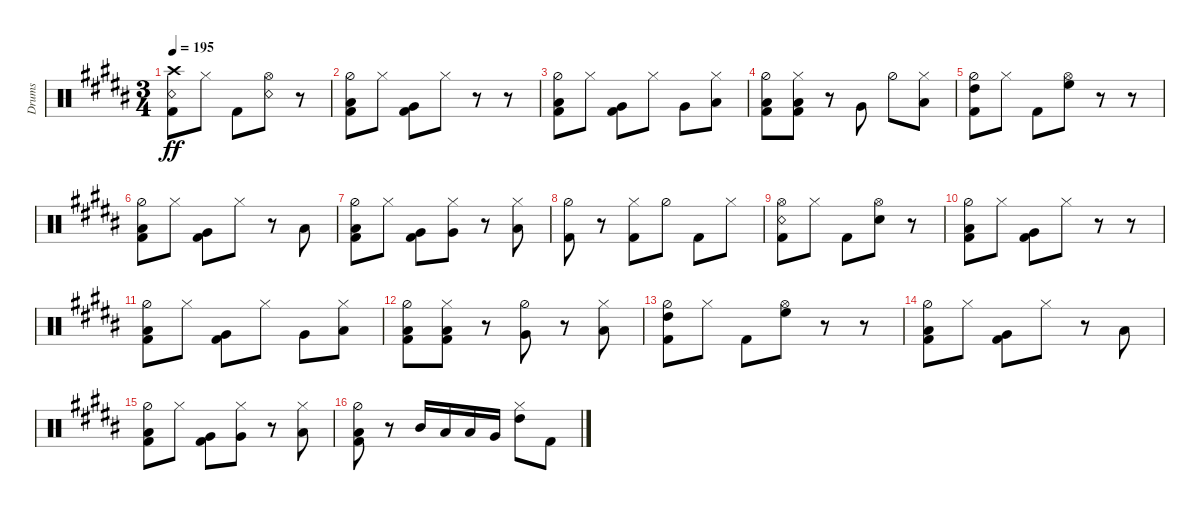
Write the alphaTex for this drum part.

\bracketExtendMode groupsimilarinstruments
\otherSystemsTrackNameOrientation horizontal
\track ("Drumkit" "Drums") {instrument percussion}
\staff {score}
\articulation defaults
\ts (3 4)
\tempo 195
\clef neutral
\ks b
("Kick (hit) 2"{acc bb} "Snare (rim shot)"{acc bb} "Crash high (hit)"{acc bb}).8{dy ff beam Down} "Hi-Hat (closed)"{acc bb}.8{beam Down} "Kick (hit) 2"{acc bb}.8{beam Down} ("Snare (rim shot)"{acc bb} "Hi-Hat (open)"{acc bb}).8{beam Down} r.8{beam Down} |
("Kick (hit) 2"{acc bb} "Hi-Hat (half)"{acc bb} "Low Tom (hit)"{acc bb}).8{beam Down} "Hi-Hat (closed)"{acc bb}.8{beam Down} ("Kick (hit) 2"{acc bb} "Very Low Tom (hit)"{acc bb}).8{beam Down} "Hi-Hat (closed)"{acc bb}.8{beam Down} r.8{beam Down} r.8{beam Down} |
("Kick (hit) 2"{acc bb} "Hi-Hat (half)"{acc bb} "Low Tom (hit)"{acc bb}).8{beam Down} "Hi-Hat (closed)"{acc bb}.8{beam Down} ("Kick (hit) 2"{acc bb} "Very Low Tom (hit)"{acc bb}).8{beam Down} "Hi-Hat (closed)"{acc bb}.8{beam Down} "Very Low Tom (hit)"{acc bb}.8{beam Down} ("Hi-Hat (closed)"{acc bb} "Low Tom (hit)"{acc bb}).8{beam Down} |
("Kick (hit) 2"{acc bb} "Hi-Hat (half)"{acc bb} "Low Tom (hit)"{acc bb}).8{beam Down} ("Hi-Hat (closed)"{acc bb} "Low Tom (hit)"{acc bb} "Kick (hit) 2"{acc bb}).8{beam Down} r.8{beam Down} "Very Low Tom (hit)"{acc bb}.8{beam Up} "Hi-Hat (half)"{acc bb}.8{beam Down} ("Hi-Hat (closed)"{acc bb} "Low Tom (hit)"{acc bb}).8{beam Down} |
("Kick (hit) 2"{acc bb} "High Tom (hit)"{acc bb} "Hi-Hat (half)"{acc bb}).8{beam Down} "Hi-Hat (closed)"{acc bb}.8{beam Down} "Kick (hit) 2"{acc bb}.8{beam Down} ("Hi-Hat (open)"{acc bb} "High Floor Tom (hit)"{acc bb}).8{beam Down} r.8{beam Down} r.8{beam Down} |
("Kick (hit) 2"{acc bb} "Hi-Hat (half)"{acc bb} "Low Tom (hit)"{acc bb}).8{beam Down} "Hi-Hat (closed)"{acc bb}.8{beam Down} ("Kick (hit) 2"{acc bb} "Very Low Tom (hit)"{acc bb}).8{beam Down} "Hi-Hat (closed)"{acc bb}.8{beam Down} r.8{beam Down} "Low Tom (hit)"{acc bb}.8{beam Up} |
("Kick (hit) 2"{acc bb} "Hi-Hat (half)"{acc bb} "Low Tom (hit)"{acc bb}).8{beam Down} "Hi-Hat (closed)"{acc bb}.8{beam Down} ("Kick (hit) 2"{acc bb} "Very Low Tom (hit)"{acc bb}).8{beam Down} ("Hi-Hat (closed)"{acc bb} "Very Low Tom (hit)"{acc bb}).8{beam Down} r.8{beam Down} ("Hi-Hat (closed)"{acc bb} "Low Tom (hit)"{acc bb}).8{beam Down} |
("Kick (hit) 2"{acc bb} "Hi-Hat (half)"{acc bb}).8{beam Down} r.8{beam Down} ("Kick (hit) 2"{acc bb} "Hi-Hat (closed)"{acc bb}).8{beam Down} "Hi-Hat (half)"{acc bb}.8{beam Down} "Kick (hit) 2"{acc bb}.8{beam Down} "Hi-Hat (closed)"{acc bb}.8{beam Down} |
("Kick (hit) 2"{acc bb} "Snare (rim shot)"{acc bb} "Hi-Hat (open)"{acc bb}).8{beam Down} "Hi-Hat (closed)"{acc bb}.8{beam Down} "Kick (hit) 2"{acc bb}.8{beam Down} ("Hi-Hat (open)"{acc bb} "Snare (hit) 2"{acc bb}).8{beam Down} r.8{beam Down} |
("Kick (hit) 2"{acc bb} "Hi-Hat (half)"{acc bb} "Low Tom (hit)"{acc bb}).8{beam Down} "Hi-Hat (closed)"{acc bb}.8{beam Down} ("Kick (hit) 2"{acc bb} "Very Low Tom (hit)"{acc bb}).8{beam Down} "Hi-Hat (closed)"{acc bb}.8{beam Down} r.8{beam Down} r.8{beam Down} |
("Kick (hit) 2"{acc bb} "Hi-Hat (half)"{acc bb} "Low Tom (hit)"{acc bb}).8{beam Down} "Hi-Hat (closed)"{acc bb}.8{beam Down} ("Kick (hit) 2"{acc bb} "Very Low Tom (hit)"{acc bb}).8{beam Down} "Hi-Hat (closed)"{acc bb}.8{beam Down} "Very Low Tom (hit)"{acc bb}.8{beam Down} ("Hi-Hat (closed)"{acc bb} "Low Tom (hit)"{acc bb}).8{beam Down} |
("Kick (hit) 2"{acc bb} "Hi-Hat (half)"{acc bb} "Low Tom (hit)"{acc bb}).8{beam Down} ("Hi-Hat (closed)"{acc bb} "Low Tom (hit)"{acc bb} "Kick (hit) 2"{acc bb}).8{beam Down} r.8{beam Down} ("Hi-Hat (half)"{acc bb} "Very Low Tom (hit)"{acc bb}).8{beam Down} r.8{beam Down} ("Hi-Hat (closed)"{acc bb} "Low Tom (hit)"{acc bb}).8{beam Down} |
("Kick (hit) 2"{acc bb} "High Tom (hit)"{acc bb} "Hi-Hat (half)"{acc bb}).8{beam Down} "Hi-Hat (closed)"{acc bb}.8{beam Down} "Kick (hit) 2"{acc bb}.8{beam Down} ("Hi-Hat (open)"{acc bb} "High Floor Tom (hit)"{acc bb}).8{beam Down} r.8{beam Down} r.8{beam Down} |
("Kick (hit) 2"{acc bb} "Hi-Hat (half)"{acc bb} "Low Tom (hit)"{acc bb}).8{beam Down} "Hi-Hat (closed)"{acc bb}.8{beam Down} ("Kick (hit) 2"{acc bb} "Very Low Tom (hit)"{acc bb}).8{beam Down} "Hi-Hat (closed)"{acc bb}.8{beam Down} r.8{beam Down} "Low Tom (hit)"{acc bb}.8{beam Up} |
("Kick (hit) 2"{acc bb} "Hi-Hat (half)"{acc bb} "Low Tom (hit)"{acc bb}).8{beam Down} "Hi-Hat (closed)"{acc bb}.8{beam Down} ("Kick (hit) 2"{acc bb} "Very Low Tom (hit)"{acc bb}).8{beam Down} ("Hi-Hat (closed)"{acc bb} "Very Low Tom (hit)"{acc bb}).8{beam Down} r.8{beam Down} ("Hi-Hat (closed)"{acc bb} "Low Tom (hit)"{acc bb}).8{beam Down} |
("Kick (hit) 2"{acc bb} "Hi-Hat (half)"{acc bb} "Low Tom (hit)"{acc bb}).8{beam Down} r.8{beam Down} "Mid Tom (hit)"{acc bb}.16{beam Up} "Low Tom (hit)"{acc bb}.16{beam Up} "Low Tom (hit)"{acc bb}.16{beam Up} "Very Low Tom (hit)"{acc bb}.16{beam Up} ("High Tom (hit)"{acc bb} "Hi-Hat (closed)"{acc bb}).8{beam Down} "Kick (hit) 2"{acc bb}.8{beam Down}
